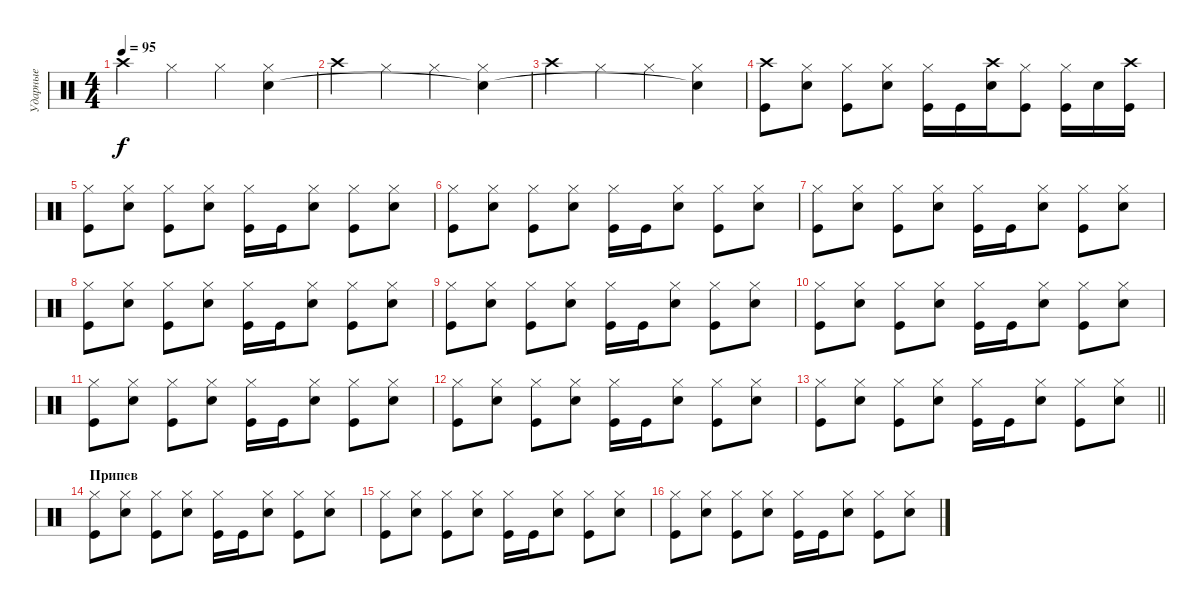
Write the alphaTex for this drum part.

\track ("Ударные" "Ударные") {instrument percussion}
\staff {score}
\articulation defaults
\ts (4 4)
\tempo 95
\clef neutral
\ks c "Crash high (hit)".4{dy f} "Hi-Hat (closed)".4 "Hi-Hat (closed)".4
("Hi-Hat (closed)" "Snare (hit)"{t}).4 |
"Crash high (hit)".4 "Hi-Hat (closed)".4 "Hi-Hat (closed)".4 ("Hi-Hat (closed)" "Snare (hit)"{t}).4 |
"Crash high (hit)".4 "Hi-Hat (closed)".4 "Hi-Hat (closed)".4 ("Hi-Hat (closed)" "Snare (hit)"{t}).4 |
("Crash high (hit)" "Kick (hit)").8 ("Hi-Hat (closed)" "Snare (hit) 2").8 ("Hi-Hat (closed)" "Kick (hit)").8 ("Hi-Hat (closed)" "Snare (hit) 2").8 ("Hi-Hat (closed)" "Kick (hit)").16 "Kick (hit)".16 ("Crash high (hit)" "Snare (hit) 2").16 ("Hi-Hat (closed)" "Kick (hit)").8 ("Hi-Hat (closed)" "Kick (hit)").16 "Snare (hit) 2".16 ("Crash high (hit)" "Kick (hit)").16 |
("Hi-Hat (closed)" "Kick (hit)").8 ("Hi-Hat (closed)" "Snare (hit) 2").8 ("Hi-Hat (closed)" "Kick (hit)").8 ("Hi-Hat (closed)" "Snare (hit) 2").8 ("Hi-Hat (closed)" "Kick (hit)").16 "Kick (hit)".16 ("Hi-Hat (closed)" "Snare (hit) 2").8 ("Hi-Hat (closed)" "Kick (hit)").8 ("Hi-Hat (closed)" "Snare (hit) 2").8 |
("Hi-Hat (closed)" "Kick (hit)").8 ("Hi-Hat (closed)" "Snare (hit) 2").8 ("Hi-Hat (closed)" "Kick (hit)").8 ("Hi-Hat (closed)" "Snare (hit) 2").8 ("Hi-Hat (closed)" "Kick (hit)").16 "Kick (hit)".16 ("Hi-Hat (closed)" "Snare (hit) 2").8 ("Hi-Hat (closed)" "Kick (hit)").8 ("Hi-Hat (closed)" "Snare (hit) 2").8 |
("Hi-Hat (closed)" "Kick (hit)").8 ("Hi-Hat (closed)" "Snare (hit) 2").8 ("Hi-Hat (closed)" "Kick (hit)").8 ("Hi-Hat (closed)" "Snare (hit) 2").8 ("Hi-Hat (closed)" "Kick (hit)").16 "Kick (hit)".16 ("Hi-Hat (closed)" "Snare (hit) 2").8 ("Hi-Hat (closed)" "Kick (hit)").8 ("Hi-Hat (closed)" "Snare (hit) 2").8 |
("Hi-Hat (closed)" "Kick (hit)").8 ("Hi-Hat (closed)" "Snare (hit) 2").8 ("Hi-Hat (closed)" "Kick (hit)").8 ("Hi-Hat (closed)" "Snare (hit) 2").8 ("Hi-Hat (closed)" "Kick (hit)").16 "Kick (hit)".16 ("Hi-Hat (closed)" "Snare (hit) 2").8 ("Hi-Hat (closed)" "Kick (hit)").8 ("Hi-Hat (closed)" "Snare (hit) 2").8 |
("Hi-Hat (closed)" "Kick (hit)").8 ("Hi-Hat (closed)" "Snare (hit) 2").8 ("Hi-Hat (closed)" "Kick (hit)").8 ("Hi-Hat (closed)" "Snare (hit) 2").8 ("Hi-Hat (closed)" "Kick (hit)").16 "Kick (hit)".16 ("Hi-Hat (closed)" "Snare (hit) 2").8 ("Hi-Hat (closed)" "Kick (hit)").8 ("Hi-Hat (closed)" "Snare (hit) 2").8 |
("Hi-Hat (closed)" "Kick (hit)").8 ("Hi-Hat (closed)" "Snare (hit) 2").8 ("Hi-Hat (closed)" "Kick (hit)").8 ("Hi-Hat (closed)" "Snare (hit) 2").8 ("Hi-Hat (closed)" "Kick (hit)").16 "Kick (hit)".16 ("Hi-Hat (closed)" "Snare (hit) 2").8 ("Hi-Hat (closed)" "Kick (hit)").8 ("Hi-Hat (closed)" "Snare (hit) 2").8 |
("Hi-Hat (closed)" "Kick (hit)").8 ("Hi-Hat (closed)" "Snare (hit) 2").8 ("Hi-Hat (closed)" "Kick (hit)").8 ("Hi-Hat (closed)" "Snare (hit) 2").8 ("Hi-Hat (closed)" "Kick (hit)").16 "Kick (hit)".16 ("Hi-Hat (closed)" "Snare (hit) 2").8 ("Hi-Hat (closed)" "Kick (hit)").8 ("Hi-Hat (closed)" "Snare (hit) 2").8 |
("Hi-Hat (closed)" "Kick (hit)").8 ("Hi-Hat (closed)" "Snare (hit) 2").8 ("Hi-Hat (closed)" "Kick (hit)").8 ("Hi-Hat (closed)" "Snare (hit) 2").8 ("Hi-Hat (closed)" "Kick (hit)").16 "Kick (hit)".16 ("Hi-Hat (closed)" "Snare (hit) 2").8 ("Hi-Hat (closed)" "Kick (hit)").8 ("Hi-Hat (closed)" "Snare (hit) 2").8 |
\barLineRight lightlight
("Hi-Hat (closed)" "Kick (hit)").8 ("Hi-Hat (closed)" "Snare (hit) 2").8 ("Hi-Hat (closed)" "Kick (hit)").8 ("Hi-Hat (closed)" "Snare (hit) 2").8 ("Hi-Hat (closed)" "Kick (hit)").16 "Kick (hit)".16 ("Hi-Hat (closed)" "Snare (hit) 2").8 ("Hi-Hat (closed)" "Kick (hit)").8 ("Hi-Hat (closed)" "Snare (hit) 2").8 |
\section ("" "Припев")
("Hi-Hat (closed)" "Kick (hit)").8 ("Hi-Hat (closed)" "Snare (hit) 2").8 ("Hi-Hat (closed)" "Kick (hit)").8 ("Hi-Hat (closed)" "Snare (hit) 2").8 ("Hi-Hat (closed)" "Kick (hit)").16 "Kick (hit)".16 ("Hi-Hat (closed)" "Snare (hit) 2").8 ("Hi-Hat (closed)" "Kick (hit)").8 ("Hi-Hat (closed)" "Snare (hit) 2").8 |
("Hi-Hat (closed)" "Kick (hit)").8 ("Hi-Hat (closed)" "Snare (hit) 2").8 ("Hi-Hat (closed)" "Kick (hit)").8 ("Hi-Hat (closed)" "Snare (hit) 2").8 ("Hi-Hat (closed)" "Kick (hit)").16 "Kick (hit)".16 ("Hi-Hat (closed)" "Snare (hit) 2").8 ("Hi-Hat (closed)" "Kick (hit)").8 ("Hi-Hat (closed)" "Snare (hit) 2").8 |
("Hi-Hat (closed)" "Kick (hit)").8 ("Hi-Hat (closed)" "Snare (hit) 2").8 ("Hi-Hat (closed)" "Kick (hit)").8 ("Hi-Hat (closed)" "Snare (hit) 2").8 ("Hi-Hat (closed)" "Kick (hit)").16 "Kick (hit)".16 ("Hi-Hat (closed)" "Snare (hit) 2").8 ("Hi-Hat (closed)" "Kick (hit)").8 ("Hi-Hat (closed)" "Snare (hit) 2").8
